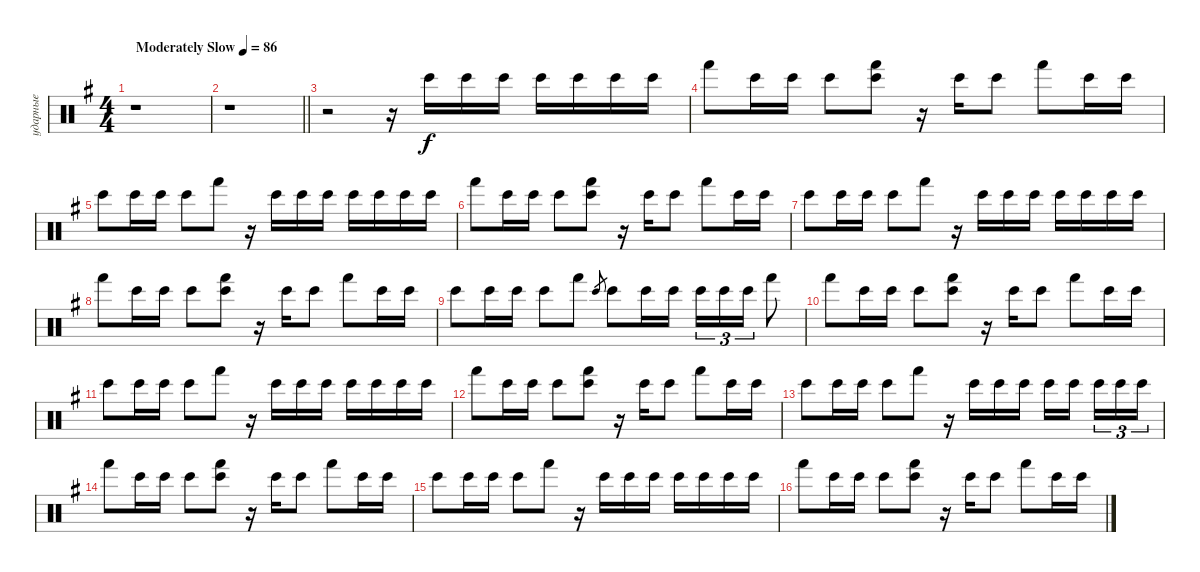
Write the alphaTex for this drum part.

\track ("ударные" "ударные") {instrument percussion}
\staff {score}
\articulation defaults
\ts (4 4)
\tempo (86 "Moderately Slow")
\clef neutral
\ks eminor
r.1{dy f} |
\barLineRight lightlight
r.1 |
\section ("" "")
r.2 r.16 "Bongo High (hit)".16{volume 0} "Bongo High (hit)".16{volume 3} "Bongo High (hit)".16{volume 6} "Bongo High (hit)".16{volume 9} "Bongo High (hit)".16{volume 12} "Bongo High (hit)".16{volume 11} "Bongo High (hit)".16 |
"Hand (hit)".8 "Bongo High (hit)".16 "Bongo High (hit)".16 "Bongo High (hit)".8 ("Bongo High (hit)" "Hand (hit)").8 r.16 "Bongo High (hit)".16 "Bongo High (hit)".8 "Hand (hit)".8 "Bongo High (hit)".16 "Bongo High (hit)".16 |
"Bongo High (hit)".8 "Bongo High (hit)".16 "Bongo High (hit)".16 "Bongo High (hit)".8 "Hand (hit)".8 r.16 "Bongo High (hit)".16 "Bongo High (hit)".16 "Bongo High (hit)".16 "Bongo High (hit)".16 "Bongo High (hit)".16 "Bongo High (hit)".16 "Bongo High (hit)".16 |
"Hand (hit)".8 "Bongo High (hit)".16 "Bongo High (hit)".16 "Bongo High (hit)".8 ("Bongo High (hit)" "Hand (hit)").8 r.16 "Bongo High (hit)".16 "Bongo High (hit)".8 "Hand (hit)".8 "Bongo High (hit)".16 "Bongo High (hit)".16 |
"Bongo High (hit)".8 "Bongo High (hit)".16 "Bongo High (hit)".16 "Bongo High (hit)".8 "Hand (hit)".8 r.16 "Bongo High (hit)".16 "Bongo High (hit)".16 "Bongo High (hit)".16 "Bongo High (hit)".16 "Bongo High (hit)".16 "Bongo High (hit)".16 "Bongo High (hit)".16 |
"Hand (hit)".8 "Bongo High (hit)".16 "Bongo High (hit)".16 "Bongo High (hit)".8 ("Bongo High (hit)" "Hand (hit)").8 r.16 "Bongo High (hit)".16 "Bongo High (hit)".8 "Hand (hit)".8 "Bongo High (hit)".16 "Bongo High (hit)".16 |
"Bongo High (hit)".8 "Bongo High (hit)".16 "Bongo High (hit)".16 "Bongo High (hit)".8 "Hand (hit)".8 "Bongo High (hit)".8{gr} "Bongo High (hit)".8 "Bongo High (hit)".16 "Bongo High (hit)".16 "Bongo High (hit)".16{tu (3 2)} "Bongo High (hit)".16{tu (3 2)} "Bongo High (hit)".16{tu (3 2)} "Hand (hit)".8 |
"Hand (hit)".8 "Bongo High (hit)".16 "Bongo High (hit)".16 "Bongo High (hit)".8 ("Bongo High (hit)" "Hand (hit)").8 r.16 "Bongo High (hit)".16 "Bongo High (hit)".8 "Hand (hit)".8 "Bongo High (hit)".16 "Bongo High (hit)".16 |
"Bongo High (hit)".8 "Bongo High (hit)".16 "Bongo High (hit)".16 "Bongo High (hit)".8 "Hand (hit)".8 r.16 "Bongo High (hit)".16 "Bongo High (hit)".16 "Bongo High (hit)".16 "Bongo High (hit)".16 "Bongo High (hit)".16 "Bongo High (hit)".16 "Bongo High (hit)".16 |
"Hand (hit)".8 "Bongo High (hit)".16 "Bongo High (hit)".16 "Bongo High (hit)".8 ("Bongo High (hit)" "Hand (hit)").8 r.16 "Bongo High (hit)".16 "Bongo High (hit)".8 "Hand (hit)".8 "Bongo High (hit)".16 "Bongo High (hit)".16 |
"Bongo High (hit)".8 "Bongo High (hit)".16 "Bongo High (hit)".16 "Bongo High (hit)".8 "Hand (hit)".8 r.16 "Bongo High (hit)".16 "Bongo High (hit)".16 "Bongo High (hit)".16 "Bongo High (hit)".16 "Bongo High (hit)".16{beam splitsecondary} "Bongo High (hit)".16{tu (3 2)} "Bongo High (hit)".16{tu (3 2)} "Bongo High (hit)".16{tu (3 2)} |
"Hand (hit)".8 "Bongo High (hit)".16 "Bongo High (hit)".16 "Bongo High (hit)".8 ("Bongo High (hit)" "Hand (hit)").8 r.16 "Bongo High (hit)".16 "Bongo High (hit)".8 "Hand (hit)".8 "Bongo High (hit)".16 "Bongo High (hit)".16 |
"Bongo High (hit)".8 "Bongo High (hit)".16 "Bongo High (hit)".16 "Bongo High (hit)".8 "Hand (hit)".8 r.16 "Bongo High (hit)".16 "Bongo High (hit)".16 "Bongo High (hit)".16 "Bongo High (hit)".16 "Bongo High (hit)".16 "Bongo High (hit)".16 "Bongo High (hit)".16 |
"Hand (hit)".8 "Bongo High (hit)".16 "Bongo High (hit)".16 "Bongo High (hit)".8 ("Bongo High (hit)" "Hand (hit)").8 r.16 "Bongo High (hit)".16 "Bongo High (hit)".8 "Hand (hit)".8 "Bongo High (hit)".16 "Bongo High (hit)".16
